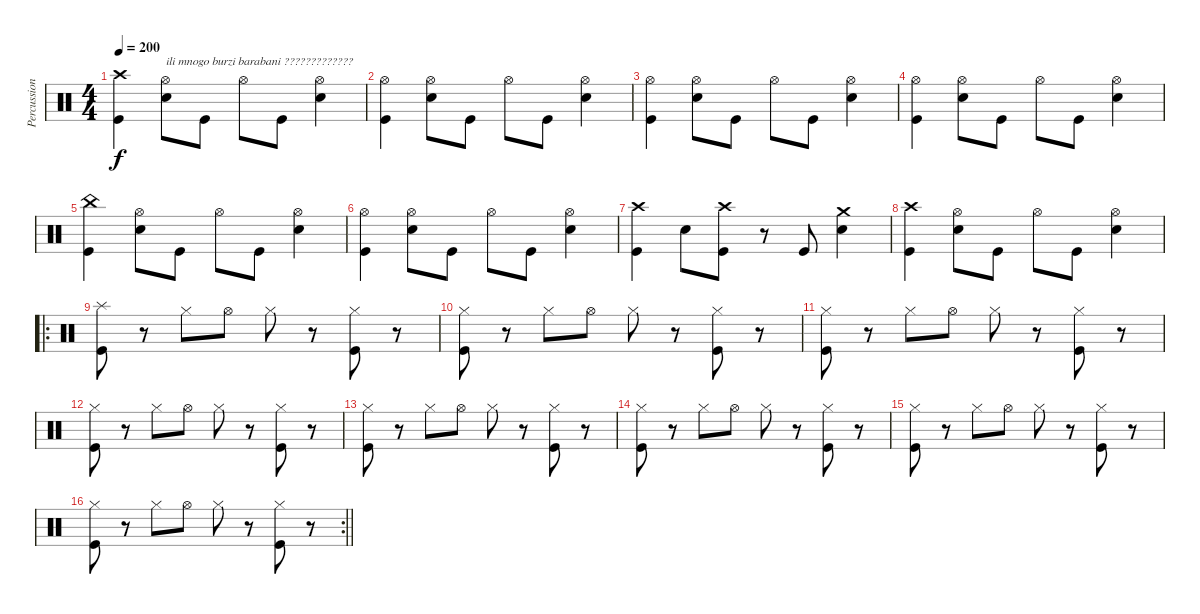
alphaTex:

\track ("Percussion" "Percussion") {instrument percussion}
\staff {score}
\articulation defaults
\ts (4 4)
\tempo 200
\clef neutral
\ks c
("Crash high (hit)" "Kick (hit)").4{dy f} ("Snare (hit) 2" "Hi-Hat (open)").8{txt "ili mnogo burzi barabani ?????????????"} "Kick (hit)".8 "Hi-Hat (open)".8 "Kick (hit)".8 ("Snare (hit) 2" "Hi-Hat (open)").4 |
("Hi-Hat (open)" "Kick (hit)").4 ("Snare (hit) 2" "Hi-Hat (open)").8 "Kick (hit)".8 "Hi-Hat (open)".8 "Kick (hit)".8 ("Snare (hit) 2" "Hi-Hat (open)").4 |
("Kick (hit)" "Hi-Hat (open)").4 ("Snare (hit) 2" "Hi-Hat (open)").8 "Kick (hit)".8 "Hi-Hat (open)".8 "Kick (hit)".8 ("Snare (hit) 2" "Hi-Hat (open)").4 |
("Kick (hit)" "Hi-Hat (open)").4 ("Snare (hit) 2" "Hi-Hat (open)").8 "Kick (hit)".8 "Hi-Hat (open)".8 "Kick (hit)".8 ("Snare (hit) 2" "Hi-Hat (open)").4 |
("China (hit)" "Kick (hit)").4 ("Snare (hit) 2" "Hi-Hat (open)").8 "Kick (hit)".8 "Hi-Hat (open)".8 "Kick (hit)".8 ("Snare (hit) 2" "Hi-Hat (open)").4 |
("Kick (hit)" "Hi-Hat (open)").4 ("Snare (hit) 2" "Hi-Hat (open)").8 "Kick (hit)".8 "Hi-Hat (open)".8 "Kick (hit)".8 ("Snare (hit) 2" "Hi-Hat (open)").4 |
("Kick (hit)" "Crash high (hit)").4 "Snare (hit) 2".8 ("Kick (hit)" "Crash high (hit)").8 r.8 "Kick (hit)".8 ("Snare (hit) 2" "Crash medium (hit)").4 |
("Kick (hit)" "Crash high (hit)").4 ("Snare (hit) 2" "Hi-Hat (open)").8 "Kick (hit)".8 "Hi-Hat (open)".8 "Kick (hit)".8 ("Snare (hit) 2" "Hi-Hat (open)").4 |
\ro
("Kick (hit)" "Splash (hit)").8 r.8 "Hi-Hat (closed)".8 "Hi-Hat (open)".8 "Hi-Hat (closed)".8 r.8 ("Hi-Hat (closed)" "Kick (hit)").8 r.8 |
("Kick (hit)" "Hi-Hat (closed)").8 r.8 "Hi-Hat (closed)".8 "Hi-Hat (open)".8 "Hi-Hat (closed)".8 r.8 ("Hi-Hat (closed)" "Kick (hit)").8 r.8 |
("Kick (hit)" "Hi-Hat (closed)").8 r.8 "Hi-Hat (closed)".8 "Hi-Hat (open)".8 "Hi-Hat (closed)".8 r.8 ("Hi-Hat (closed)" "Kick (hit)").8 r.8 |
("Kick (hit)" "Hi-Hat (closed)").8 r.8 "Hi-Hat (closed)".8 "Hi-Hat (open)".8 "Hi-Hat (closed)".8 r.8 ("Hi-Hat (closed)" "Kick (hit)").8 r.8 |
("Kick (hit)" "Hi-Hat (closed)").8 r.8 "Hi-Hat (closed)".8 "Hi-Hat (open)".8 "Hi-Hat (closed)".8 r.8 ("Hi-Hat (closed)" "Kick (hit)").8 r.8 |
("Kick (hit)" "Hi-Hat (closed)").8 r.8 "Hi-Hat (closed)".8 "Hi-Hat (open)".8 "Hi-Hat (closed)".8 r.8 ("Hi-Hat (closed)" "Kick (hit)").8 r.8 |
("Kick (hit)" "Hi-Hat (closed)").8 r.8 "Hi-Hat (closed)".8 "Hi-Hat (open)".8 "Hi-Hat (closed)".8 r.8 ("Hi-Hat (closed)" "Kick (hit)").8 r.8 |
\rc 2
\barLineRight lightlight
("Kick (hit)" "Hi-Hat (closed)").8 r.8 "Hi-Hat (closed)".8 "Hi-Hat (open)".8 "Hi-Hat (closed)".8 r.8 ("Hi-Hat (closed)" "Kick (hit)").8 r.8
